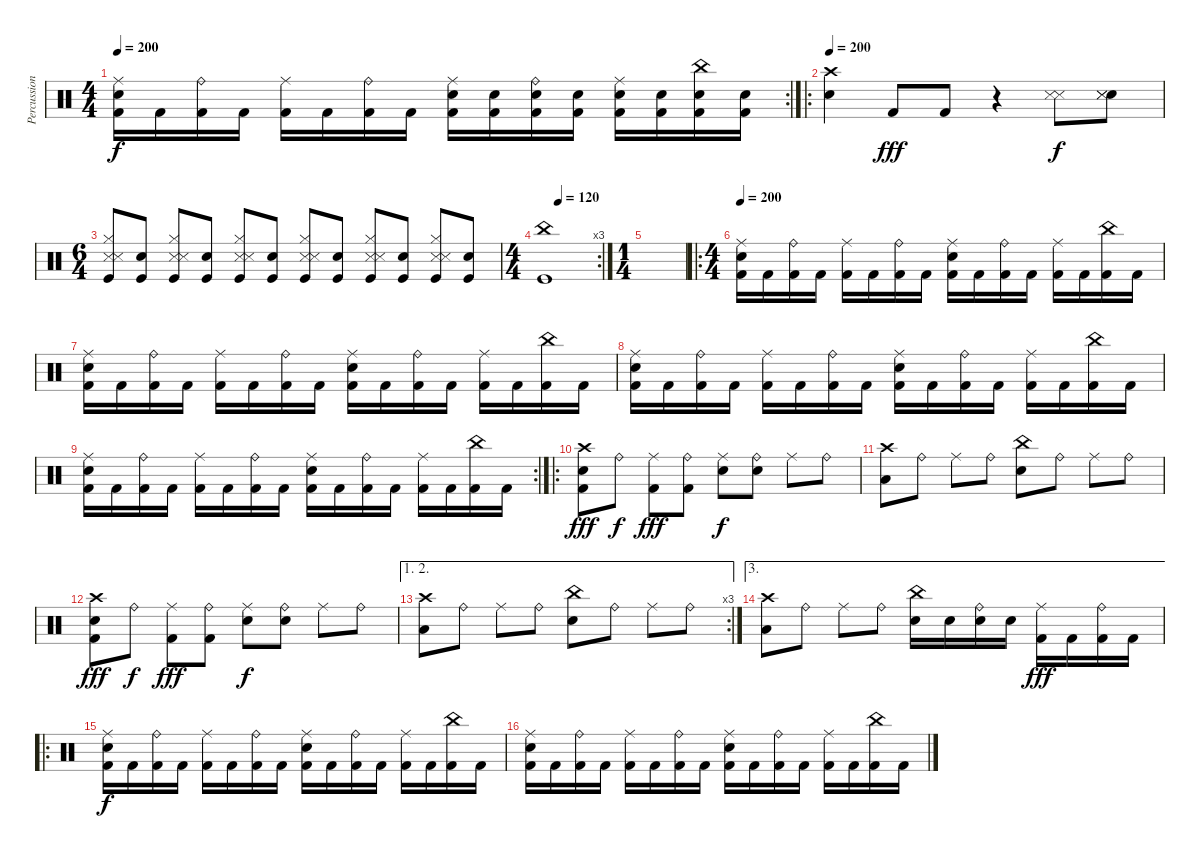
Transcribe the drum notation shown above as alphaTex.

\track ("Percussion" "Percussion") {instrument percussion}
\staff {score}
\articulation defaults
\rc 2
\ts (4 4)
\tempo 200
\clef neutral
\ks c
("Ride (middle)" "Electric Snare (hit)" "Kick (hit) 2").16{dy f} "Kick (hit) 2".16 ("Ride (bell)" "Kick (hit) 2").16 "Kick (hit) 2".16 ("Ride (middle)" "Kick (hit) 2").16 "Kick (hit) 2".16 ("Ride (bell)" "Kick (hit) 2").16 "Kick (hit) 2".16 ("Ride (middle)" "Electric Snare (hit)" "Kick (hit) 2").16 ("Electric Snare (hit)" "Kick (hit) 2").16 ("Ride (bell)" "Electric Snare (hit)" "Kick (hit) 2").16 ("Electric Snare (hit)" "Kick (hit) 2").16 ("Ride (middle)" "Electric Snare (hit)" "Kick (hit) 2").16 ("Electric Snare (hit)" "Kick (hit) 2").16 ("China (hit)" "Electric Snare (hit)" "Kick (hit) 2").16 ("Electric Snare (hit)" "Kick (hit) 2").16 |
\ro
\tempo 200
("Crash high (hit)" "Electric Snare (hit)").4 "Kick (hit) 2".8{dy fff} "Kick (hit) 2".8 r.4 ("Snare (side stick) 3" "Metronome (hit)").8{dy f} ("Metronome (bell)" "Snare (side stick) 3" "Metronome (hit)").8 |
\ts (6 4)
("Hi-Hat (closed)" "Snare (side stick) 3" "Metronome (hit)" "Kick (hit)").8 ("Metronome (bell)" "Kick (hit)").8 ("Hi-Hat (closed)" "Snare (side stick) 3" "Metronome (hit)" "Kick (hit)").8 ("Metronome (bell)" "Kick (hit)").8 ("Hi-Hat (closed)" "Snare (side stick) 3" "Metronome (hit)" "Kick (hit)").8 ("Metronome (bell)" "Kick (hit)").8 ("Hi-Hat (closed)" "Snare (side stick) 3" "Metronome (hit)" "Kick (hit)").8 ("Metronome (bell)" "Kick (hit)").8 ("Hi-Hat (closed)" "Snare (side stick) 3" "Metronome (hit)" "Kick (hit)").8 ("Metronome (bell)" "Kick (hit)").8 ("Hi-Hat (closed)" "Snare (side stick) 3" "Metronome (hit)" "Kick (hit)").8 ("Metronome (bell)" "Kick (hit)").8 |
\rc 3
\ts (4 4)
\tempo (120 0.25)
("China (hit)" "Kick (hit)").1 |
\ts (1 4)
|
\ro
\ts (4 4)
\tempo 200
("Ride (middle)" "Electric Snare (hit)" "Kick (hit) 2").16 "Kick (hit) 2".16 ("Ride (bell)" "Kick (hit) 2").16 "Kick (hit) 2".16 ("Ride (middle)" "Kick (hit) 2").16 "Kick (hit) 2".16 ("Ride (bell)" "Kick (hit) 2").16 "Kick (hit) 2".16 ("Ride (middle)" "Electric Snare (hit)" "Kick (hit) 2").16 "Kick (hit) 2".16 ("Ride (bell)" "Kick (hit) 2").16 "Kick (hit) 2".16 ("Ride (middle)" "Kick (hit) 2").16 "Kick (hit) 2".16 ("China (hit)" "Kick (hit) 2").16 "Kick (hit) 2".16 |
("Ride (middle)" "Electric Snare (hit)" "Kick (hit) 2").16 "Kick (hit) 2".16 ("Ride (bell)" "Kick (hit) 2").16 "Kick (hit) 2".16 ("Ride (middle)" "Kick (hit) 2").16 "Kick (hit) 2".16 ("Ride (bell)" "Kick (hit) 2").16 "Kick (hit) 2".16 ("Ride (middle)" "Electric Snare (hit)" "Kick (hit) 2").16 "Kick (hit) 2".16 ("Ride (bell)" "Kick (hit) 2").16 "Kick (hit) 2".16 ("Ride (middle)" "Kick (hit) 2").16 "Kick (hit) 2".16 ("China (hit)" "Kick (hit) 2").16 "Kick (hit) 2".16 |
("Ride (middle)" "Electric Snare (hit)" "Kick (hit) 2").16 "Kick (hit) 2".16 ("Ride (bell)" "Kick (hit) 2").16 "Kick (hit) 2".16 ("Ride (middle)" "Kick (hit) 2").16 "Kick (hit) 2".16 ("Ride (bell)" "Kick (hit) 2").16 "Kick (hit) 2".16 ("Ride (middle)" "Electric Snare (hit)" "Kick (hit) 2").16 "Kick (hit) 2".16 ("Ride (bell)" "Kick (hit) 2").16 "Kick (hit) 2".16 ("Ride (middle)" "Kick (hit) 2").16 "Kick (hit) 2".16 ("China (hit)" "Kick (hit) 2").16 "Kick (hit) 2".16 |
\rc 2
("Ride (middle)" "Electric Snare (hit)" "Kick (hit) 2").16 "Kick (hit) 2".16 ("Ride (bell)" "Kick (hit) 2").16 "Kick (hit) 2".16 ("Ride (middle)" "Kick (hit) 2").16 "Kick (hit) 2".16 ("Ride (bell)" "Kick (hit) 2").16 "Kick (hit) 2".16 ("Ride (middle)" "Electric Snare (hit)" "Kick (hit) 2").16 "Kick (hit) 2".16 ("Ride (bell)" "Kick (hit) 2").16 "Kick (hit) 2".16 ("Ride (middle)" "Kick (hit) 2").16 "Kick (hit) 2".16 ("China (hit)" "Kick (hit) 2").16 "Kick (hit) 2".16 |
\ro
("Crash high (hit)" "Electric Snare (hit)" "Kick (hit) 2").8{dy fff} "Ride (bell)".8{dy f} ("Ride (middle)" "Kick (hit) 2").8{dy fff} ("Ride (bell)" "Kick (hit) 2").8 ("Ride (middle)" "Electric Snare (hit)").8{dy f} ("Ride (bell)" "Electric Snare (hit)").8 "Ride (middle)".8 "Ride (bell)".8 |
("Crash high (hit)" "Low Tom (hit)").8 "Ride (bell)".8 "Ride (middle)".8 "Ride (bell)".8 ("China (hit)" "Electric Snare (hit)").8 "Ride (bell)".8 "Ride (middle)".8 "Ride (bell)".8 |
("Crash high (hit)" "Electric Snare (hit)" "Kick (hit) 2").8{dy fff} "Ride (bell)".8{dy f} ("Ride (middle)" "Kick (hit) 2").8{dy fff} ("Ride (bell)" "Kick (hit) 2").8 ("Ride (middle)" "Electric Snare (hit)").8{dy f} ("Ride (bell)" "Electric Snare (hit)").8 "Ride (middle)".8 "Ride (bell)".8 |
\ae (1 2)
\rc 3
("Crash high (hit)" "Low Tom (hit)").8 "Ride (bell)".8 "Ride (middle)".8 "Ride (bell)".8 ("China (hit)" "Electric Snare (hit)").8 "Ride (bell)".8 "Ride (middle)".8 "Ride (bell)".8 |
\ae 3
("Crash high (hit)" "Low Tom (hit)").8 "Ride (bell)".8 "Ride (middle)".8 "Ride (bell)".8 ("China (hit)" "Electric Snare (hit)").16 "Electric Snare (hit)".16 ("Ride (bell)" "Electric Snare (hit)").16 "Electric Snare (hit)".16 ("Ride (middle)" "Kick (hit) 2").16{dy fff} "Kick (hit) 2".16 ("Ride (bell)" "Kick (hit) 2").16 "Kick (hit) 2".16 |
\ro
("Ride (middle)" "Electric Snare (hit)" "Kick (hit) 2").16{dy f} "Kick (hit) 2".16 ("Ride (bell)" "Kick (hit) 2").16 "Kick (hit) 2".16 ("Ride (middle)" "Kick (hit) 2").16 "Kick (hit) 2".16 ("Ride (bell)" "Kick (hit) 2").16 "Kick (hit) 2".16 ("Ride (middle)" "Electric Snare (hit)" "Kick (hit) 2").16 "Kick (hit) 2".16 ("Ride (bell)" "Kick (hit) 2").16 "Kick (hit) 2".16 ("Ride (middle)" "Kick (hit) 2").16 "Kick (hit) 2".16 ("China (hit)" "Kick (hit) 2").16 "Kick (hit) 2".16 |
("Ride (middle)" "Electric Snare (hit)" "Kick (hit) 2").16 "Kick (hit) 2".16 ("Ride (bell)" "Kick (hit) 2").16 "Kick (hit) 2".16 ("Ride (middle)" "Kick (hit) 2").16 "Kick (hit) 2".16 ("Ride (bell)" "Kick (hit) 2").16 "Kick (hit) 2".16 ("Ride (middle)" "Electric Snare (hit)" "Kick (hit) 2").16 "Kick (hit) 2".16 ("Ride (bell)" "Kick (hit) 2").16 "Kick (hit) 2".16 ("Ride (middle)" "Kick (hit) 2").16 "Kick (hit) 2".16 ("China (hit)" "Kick (hit) 2").16 "Kick (hit) 2".16
